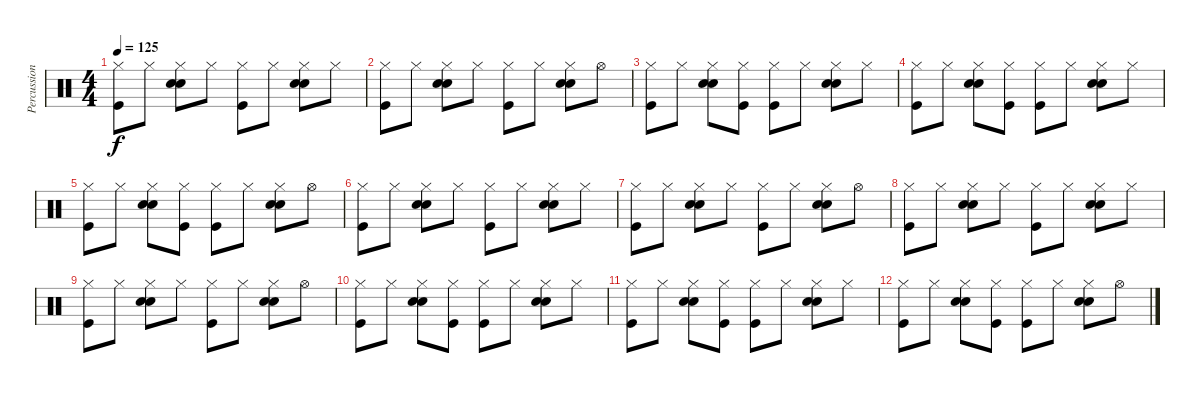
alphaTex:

\track ("Percussion" "Percussion") {instrument percussion}
\staff {score}
\articulation defaults
\ts (4 4)
\tempo 125
\clef neutral
\ks c
("Hi-Hat (closed)" "Kick (hit)").8{dy f} "Hi-Hat (closed)".8 ("Hi-Hat (closed)" "Hand Clap (hit)" "Snare (hit) 2").8 "Hi-Hat (closed)".8 ("Hi-Hat (closed)" "Kick (hit)").8 "Hi-Hat (closed)".8 ("Hi-Hat (closed)" "Hand Clap (hit)" "Snare (hit) 2").8 "Hi-Hat (closed)".8 |
("Hi-Hat (closed)" "Kick (hit)").8 "Hi-Hat (closed)".8 ("Hi-Hat (closed)" "Hand Clap (hit)" "Snare (hit) 2").8 "Hi-Hat (closed)".8 ("Hi-Hat (closed)" "Kick (hit)").8 "Hi-Hat (closed)".8 ("Hi-Hat (closed)" "Hand Clap (hit)" "Snare (hit) 2").8 "Hi-Hat (open)".8 |
("Hi-Hat (closed)" "Kick (hit)").8 "Hi-Hat (closed)".8 ("Hi-Hat (closed)" "Hand Clap (hit)" "Snare (hit) 2").8 ("Hi-Hat (closed)" "Kick (hit)").8 ("Hi-Hat (closed)" "Kick (hit)").8 "Hi-Hat (closed)".8 ("Hi-Hat (closed)" "Hand Clap (hit)" "Snare (hit) 2").8 "Hi-Hat (closed)".8 |
("Hi-Hat (closed)" "Kick (hit)").8 "Hi-Hat (closed)".8 ("Hi-Hat (closed)" "Hand Clap (hit)" "Snare (hit) 2").8 ("Hi-Hat (closed)" "Kick (hit)").8 ("Hi-Hat (closed)" "Kick (hit)").8 "Hi-Hat (closed)".8 ("Hi-Hat (closed)" "Hand Clap (hit)" "Snare (hit) 2").8 "Hi-Hat (closed)".8 |
("Hi-Hat (closed)" "Kick (hit)").8 "Hi-Hat (closed)".8 ("Hi-Hat (closed)" "Hand Clap (hit)" "Snare (hit) 2").8 ("Hi-Hat (closed)" "Kick (hit)").8 ("Hi-Hat (closed)" "Kick (hit)").8 "Hi-Hat (closed)".8 ("Hi-Hat (closed)" "Hand Clap (hit)" "Snare (hit) 2").8 "Hi-Hat (open)".8 |
("Hi-Hat (closed)" "Kick (hit)").8 "Hi-Hat (closed)".8 ("Hi-Hat (closed)" "Hand Clap (hit)" "Snare (hit) 2").8 "Hi-Hat (closed)".8 ("Hi-Hat (closed)" "Kick (hit)").8 "Hi-Hat (closed)".8 ("Hi-Hat (closed)" "Hand Clap (hit)" "Snare (hit) 2").8 "Hi-Hat (closed)".8 |
("Hi-Hat (closed)" "Kick (hit)").8 "Hi-Hat (closed)".8 ("Hi-Hat (closed)" "Hand Clap (hit)" "Snare (hit) 2").8 "Hi-Hat (closed)".8 ("Hi-Hat (closed)" "Kick (hit)").8 "Hi-Hat (closed)".8 ("Hi-Hat (closed)" "Hand Clap (hit)" "Snare (hit) 2").8 "Hi-Hat (open)".8 |
("Hi-Hat (closed)" "Kick (hit)").8 "Hi-Hat (closed)".8 ("Hi-Hat (closed)" "Hand Clap (hit)" "Snare (hit) 2").8 "Hi-Hat (closed)".8 ("Hi-Hat (closed)" "Kick (hit)").8 "Hi-Hat (closed)".8 ("Hi-Hat (closed)" "Hand Clap (hit)" "Snare (hit) 2").8 "Hi-Hat (closed)".8 |
("Hi-Hat (closed)" "Kick (hit)").8 "Hi-Hat (closed)".8 ("Hi-Hat (closed)" "Hand Clap (hit)" "Snare (hit) 2").8 "Hi-Hat (closed)".8 ("Hi-Hat (closed)" "Kick (hit)").8 "Hi-Hat (closed)".8 ("Hi-Hat (closed)" "Hand Clap (hit)" "Snare (hit) 2").8 "Hi-Hat (open)".8 |
("Hi-Hat (closed)" "Kick (hit)").8 "Hi-Hat (closed)".8 ("Hi-Hat (closed)" "Hand Clap (hit)" "Snare (hit) 2").8 ("Hi-Hat (closed)" "Kick (hit)").8 ("Hi-Hat (closed)" "Kick (hit)").8 "Hi-Hat (closed)".8 ("Hi-Hat (closed)" "Hand Clap (hit)" "Snare (hit) 2").8 "Hi-Hat (closed)".8 |
("Hi-Hat (closed)" "Kick (hit)").8 "Hi-Hat (closed)".8 ("Hi-Hat (closed)" "Hand Clap (hit)" "Snare (hit) 2").8 ("Hi-Hat (closed)" "Kick (hit)").8 ("Hi-Hat (closed)" "Kick (hit)").8 "Hi-Hat (closed)".8 ("Hi-Hat (closed)" "Hand Clap (hit)" "Snare (hit) 2").8 "Hi-Hat (closed)".8 |
("Hi-Hat (closed)" "Kick (hit)").8 "Hi-Hat (closed)".8 ("Hi-Hat (closed)" "Hand Clap (hit)" "Snare (hit) 2").8 ("Hi-Hat (closed)" "Kick (hit)").8 ("Hi-Hat (closed)" "Kick (hit)").8 "Hi-Hat (closed)".8 ("Hi-Hat (closed)" "Hand Clap (hit)" "Snare (hit) 2").8 "Hi-Hat (open)".8
